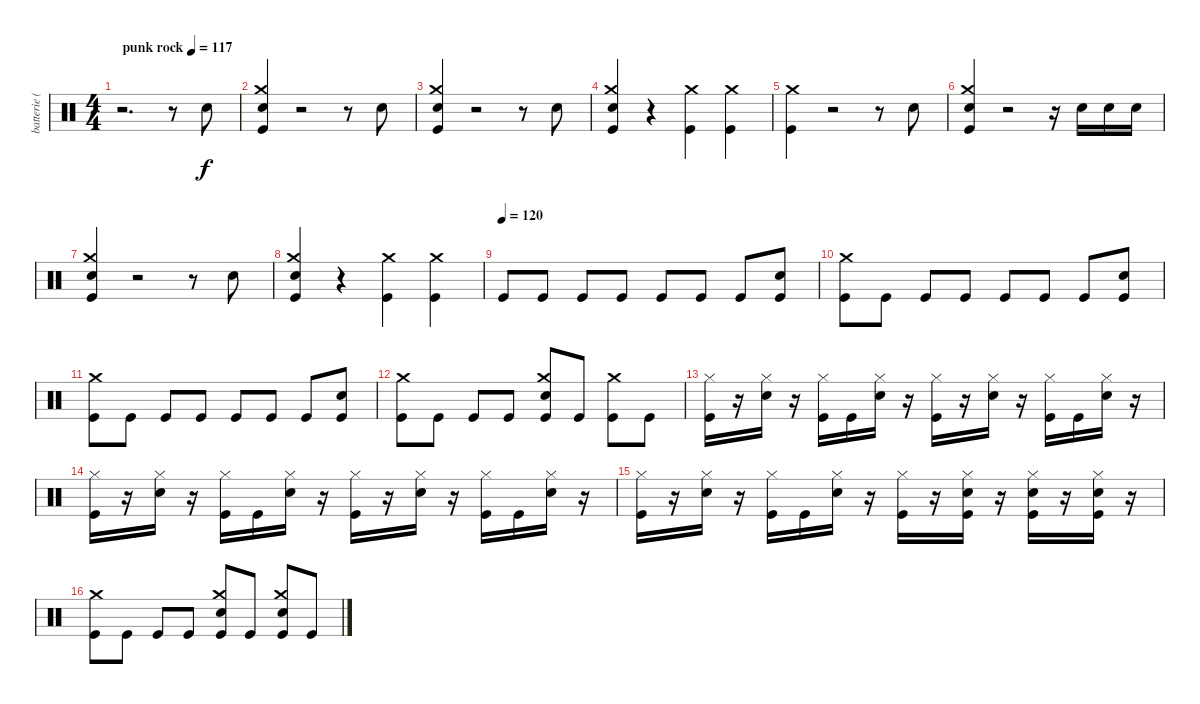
\track ("batterie ( Yureesh ) " "batterie (") {instrument percussion}
\staff {score}
\articulation defaults
\ts (4 4)
\tempo (117 "punk rock")
\clef neutral
\ks c
r.2{d dy f} r.8 "Snare (hit) 2".8 |
("Crash medium (hit)" "Snare (hit) 2" "Kick (hit)").4 r.2 r.8 "Snare (hit) 2".8 |
("Crash medium (hit)" "Snare (hit) 2" "Kick (hit)").4 r.2 r.8 "Snare (hit) 2".8 |
("Crash medium (hit)" "Snare (hit) 2" "Kick (hit)").4 r.4 ("Crash medium (hit)" "Kick (hit)").4 ("Crash medium (hit)" "Kick (hit)").4 |
("Crash medium (hit)" "Kick (hit)").4 r.2 r.8 "Snare (hit) 2".8 |
("Crash medium (hit)" "Snare (hit) 2" "Kick (hit)").4 r.2 r.16 "Snare (hit) 2".16 "Snare (hit) 2".16 "Snare (hit) 2".16 |
("Crash medium (hit)" "Snare (hit) 2" "Kick (hit)").4 r.2 r.8 "Snare (hit) 2".8 |
("Crash medium (hit)" "Snare (hit) 2" "Kick (hit)").4 r.4 ("Crash medium (hit)" "Kick (hit)").4 ("Crash medium (hit)" "Kick (hit)").4 |
\tempo (120)
"Kick (hit)".8 "Kick (hit)".8 "Kick (hit)".8 "Kick (hit)".8 "Kick (hit)".8 "Kick (hit)".8 "Kick (hit)".8 ("Snare (hit) 2" "Kick (hit)").8 |
("Crash medium (hit)" "Kick (hit)").8 "Kick (hit)".8 "Kick (hit)".8 "Kick (hit)".8 "Kick (hit)".8 "Kick (hit)".8 "Kick (hit)".8 ("Snare (hit) 2" "Kick (hit)").8 |
("Crash medium (hit)" "Kick (hit)").8 "Kick (hit)".8 "Kick (hit)".8 "Kick (hit)".8 "Kick (hit)".8 "Kick (hit)".8 "Kick (hit)".8 ("Snare (hit) 2" "Kick (hit)").8 |
("Crash medium (hit)" "Kick (hit)").8 "Kick (hit)".8 "Kick (hit)".8 "Kick (hit)".8 ("Crash medium (hit)" "Snare (hit) 2" "Kick (hit)").8 "Kick (hit)".8 ("Crash medium (hit)" "Kick (hit)").8 "Kick (hit)".8 |
("Hi-Hat (closed)" "Kick (hit)").16 r.16 ("Hi-Hat (closed)" "Snare (hit) 2").16 r.16 ("Hi-Hat (closed)" "Kick (hit)").16 "Kick (hit)".16 ("Hi-Hat (closed)" "Snare (hit) 2").16 r.16 ("Hi-Hat (closed)" "Kick (hit)").16 r.16 ("Hi-Hat (closed)" "Snare (hit) 2").16 r.16 ("Hi-Hat (closed)" "Kick (hit)").16 "Kick (hit)".16 ("Hi-Hat (closed)" "Snare (hit) 2").16 r.16 |
("Hi-Hat (closed)" "Kick (hit)").16 r.16 ("Hi-Hat (closed)" "Snare (hit) 2").16 r.16 ("Hi-Hat (closed)" "Kick (hit)").16 "Kick (hit)".16 ("Hi-Hat (closed)" "Snare (hit) 2").16 r.16 ("Hi-Hat (closed)" "Kick (hit)").16 r.16 ("Hi-Hat (closed)" "Snare (hit) 2").16 r.16 ("Hi-Hat (closed)" "Kick (hit)").16 "Kick (hit)".16 ("Hi-Hat (closed)" "Snare (hit) 2").16 r.16 |
("Hi-Hat (closed)" "Kick (hit)").16 r.16 ("Hi-Hat (closed)" "Snare (hit) 2").16 r.16 ("Hi-Hat (closed)" "Kick (hit)").16 "Kick (hit)".16 ("Hi-Hat (closed)" "Snare (hit) 2").16 r.16 ("Hi-Hat (closed)" "Kick (hit)").16 r.16 ("Hi-Hat (closed)" "Snare (hit) 2" "Kick (hit)").16 r.16 ("Hi-Hat (closed)" "Snare (hit) 2" "Kick (hit)").16 r.16 ("Hi-Hat (closed)" "Snare (hit) 2" "Kick (hit)").16 r.16 |
("Crash medium (hit)" "Kick (hit)").8 "Kick (hit)".8 "Kick (hit)".8 "Kick (hit)".8 ("Crash medium (hit)" "Snare (hit) 2" "Kick (hit)").8 "Kick (hit)".8 ("Crash medium (hit)" "Snare (hit) 2" "Kick (hit)").8 "Kick (hit)".8
